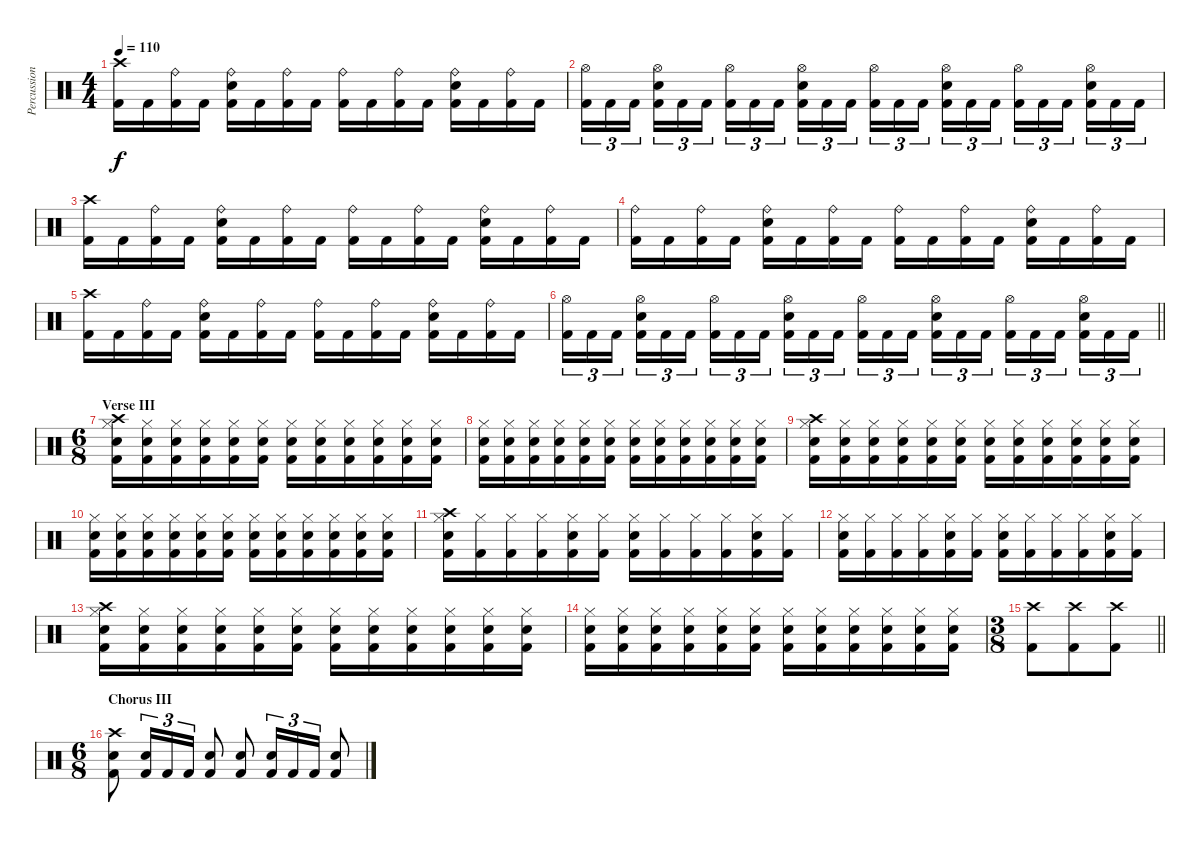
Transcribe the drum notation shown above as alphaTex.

\track ("Percussion" "Percussion") {instrument percussion}
\staff {score}
\articulation defaults
\ts (4 4)
\tempo 110
\clef neutral
\ks c
("Crash high (hit)" "Kick (hit) 2").16{dy f} "Kick (hit) 2".16 ("Ride (bell)" "Kick (hit) 2").16 "Kick (hit) 2".16 ("Ride (bell)" "Electric Snare (hit)" "Kick (hit) 2").16 "Kick (hit) 2".16 ("Ride (bell)" "Kick (hit) 2").16 "Kick (hit) 2".16 ("Ride (bell)" "Kick (hit) 2").16 "Kick (hit) 2".16 ("Ride (bell)" "Kick (hit) 2").16 "Kick (hit) 2".16 ("Ride (bell)" "Electric Snare (hit)" "Kick (hit) 2").16 "Kick (hit) 2".16 ("Ride (bell)" "Kick (hit) 2").16 "Kick (hit) 2".16 |
("Hi-Hat (open)" "Kick (hit) 2").16{tu (3 2)} "Kick (hit) 2".16{tu (3 2)} "Kick (hit) 2".16{tu (3 2) beam splitsecondary} ("Hi-Hat (open)" "Electric Snare (hit)" "Kick (hit) 2").16{tu (3 2)} "Kick (hit) 2".16{tu (3 2)} "Kick (hit) 2".16{tu (3 2)} ("Hi-Hat (open)" "Kick (hit) 2").16{tu (3 2)} "Kick (hit) 2".16{tu (3 2)} "Kick (hit) 2".16{tu (3 2) beam splitsecondary} ("Hi-Hat (open)" "Electric Snare (hit)" "Kick (hit) 2").16{tu (3 2)} "Kick (hit) 2".16{tu (3 2)} "Kick (hit) 2".16{tu (3 2)} ("Hi-Hat (open)" "Kick (hit) 2").16{tu (3 2)} "Kick (hit) 2".16{tu (3 2)} "Kick (hit) 2".16{tu (3 2) beam splitsecondary} ("Hi-Hat (open)" "Electric Snare (hit)" "Kick (hit) 2").16{tu (3 2)} "Kick (hit) 2".16{tu (3 2)} "Kick (hit) 2".16{tu (3 2)} ("Hi-Hat (open)" "Kick (hit) 2").16{tu (3 2)} "Kick (hit) 2".16{tu (3 2)} "Kick (hit) 2".16{tu (3 2) beam splitsecondary} ("Hi-Hat (open)" "Electric Snare (hit)" "Kick (hit) 2").16{tu (3 2)} "Kick (hit) 2".16{tu (3 2)} "Kick (hit) 2".16{tu (3 2)} |
("Crash high (hit)" "Kick (hit) 2").16 "Kick (hit) 2".16 ("Ride (bell)" "Kick (hit) 2").16 "Kick (hit) 2".16 ("Ride (bell)" "Electric Snare (hit)" "Kick (hit) 2").16 "Kick (hit) 2".16 ("Ride (bell)" "Kick (hit) 2").16 "Kick (hit) 2".16 ("Ride (bell)" "Kick (hit) 2").16 "Kick (hit) 2".16 ("Ride (bell)" "Kick (hit) 2").16 "Kick (hit) 2".16 ("Ride (bell)" "Electric Snare (hit)" "Kick (hit) 2").16 "Kick (hit) 2".16 ("Ride (bell)" "Kick (hit) 2").16 "Kick (hit) 2".16 |
("Ride (bell)" "Kick (hit) 2").16 "Kick (hit) 2".16 ("Ride (bell)" "Kick (hit) 2").16 "Kick (hit) 2".16 ("Ride (bell)" "Electric Snare (hit)" "Kick (hit) 2").16 "Kick (hit) 2".16 ("Ride (bell)" "Kick (hit) 2").16 "Kick (hit) 2".16 ("Ride (bell)" "Kick (hit) 2").16 "Kick (hit) 2".16 ("Ride (bell)" "Kick (hit) 2").16 "Kick (hit) 2".16 ("Ride (bell)" "Electric Snare (hit)" "Kick (hit) 2").16 "Kick (hit) 2".16 ("Ride (bell)" "Kick (hit) 2").16 "Kick (hit) 2".16 |
("Crash high (hit)" "Kick (hit) 2").16 "Kick (hit) 2".16 ("Ride (bell)" "Kick (hit) 2").16 "Kick (hit) 2".16 ("Ride (bell)" "Electric Snare (hit)" "Kick (hit) 2").16 "Kick (hit) 2".16 ("Ride (bell)" "Kick (hit) 2").16 "Kick (hit) 2".16 ("Ride (bell)" "Kick (hit) 2").16 "Kick (hit) 2".16 ("Ride (bell)" "Kick (hit) 2").16 "Kick (hit) 2".16 ("Ride (bell)" "Electric Snare (hit)" "Kick (hit) 2").16 "Kick (hit) 2".16 ("Ride (bell)" "Kick (hit) 2").16 "Kick (hit) 2".16 |
\barLineRight lightlight
("Hi-Hat (open)" "Kick (hit) 2").16{tu (3 2)} "Kick (hit) 2".16{tu (3 2)} "Kick (hit) 2".16{tu (3 2) beam splitsecondary} ("Hi-Hat (open)" "Electric Snare (hit)" "Kick (hit) 2").16{tu (3 2)} "Kick (hit) 2".16{tu (3 2)} "Kick (hit) 2".16{tu (3 2)} ("Hi-Hat (open)" "Kick (hit) 2").16{tu (3 2)} "Kick (hit) 2".16{tu (3 2)} "Kick (hit) 2".16{tu (3 2) beam splitsecondary} ("Hi-Hat (open)" "Electric Snare (hit)" "Kick (hit) 2").16{tu (3 2)} "Kick (hit) 2".16{tu (3 2)} "Kick (hit) 2".16{tu (3 2)} ("Hi-Hat (open)" "Kick (hit) 2").16{tu (3 2)} "Kick (hit) 2".16{tu (3 2)} "Kick (hit) 2".16{tu (3 2) beam splitsecondary} ("Hi-Hat (open)" "Electric Snare (hit)" "Kick (hit) 2").16{tu (3 2)} "Kick (hit) 2".16{tu (3 2)} "Kick (hit) 2".16{tu (3 2)} ("Hi-Hat (open)" "Kick (hit) 2").16{tu (3 2)} "Kick (hit) 2".16{tu (3 2)} "Kick (hit) 2".16{tu (3 2) beam splitsecondary} ("Hi-Hat (open)" "Electric Snare (hit)" "Kick (hit) 2").16{tu (3 2)} "Kick (hit) 2".16{tu (3 2)} "Kick (hit) 2".16{tu (3 2)} |
\ts (6 8)
\section ("" "Verse III")
("Crash high (hit)" "Hi-Hat (closed)" "Electric Snare (hit)" "Kick (hit) 2").16 ("Hi-Hat (closed)" "Electric Snare (hit)" "Kick (hit) 2").16 ("Hi-Hat (closed)" "Electric Snare (hit)" "Kick (hit) 2").16 ("Hi-Hat (closed)" "Electric Snare (hit)" "Kick (hit) 2").16 ("Hi-Hat (closed)" "Electric Snare (hit)" "Kick (hit) 2").16 ("Hi-Hat (closed)" "Electric Snare (hit)" "Kick (hit) 2").16 ("Hi-Hat (closed)" "Electric Snare (hit)" "Kick (hit) 2").16 ("Hi-Hat (closed)" "Electric Snare (hit)" "Kick (hit) 2").16 ("Hi-Hat (closed)" "Electric Snare (hit)" "Kick (hit) 2").16 ("Hi-Hat (closed)" "Electric Snare (hit)" "Kick (hit) 2").16 ("Hi-Hat (closed)" "Electric Snare (hit)" "Kick (hit) 2").16 ("Hi-Hat (closed)" "Electric Snare (hit)" "Kick (hit) 2").16 |
("Hi-Hat (closed)" "Electric Snare (hit)" "Kick (hit) 2").16 ("Hi-Hat (closed)" "Electric Snare (hit)" "Kick (hit) 2").16 ("Hi-Hat (closed)" "Electric Snare (hit)" "Kick (hit) 2").16 ("Hi-Hat (closed)" "Electric Snare (hit)" "Kick (hit) 2").16 ("Hi-Hat (closed)" "Electric Snare (hit)" "Kick (hit) 2").16 ("Hi-Hat (closed)" "Electric Snare (hit)" "Kick (hit) 2").16 ("Hi-Hat (closed)" "Electric Snare (hit)" "Kick (hit) 2").16 ("Hi-Hat (closed)" "Electric Snare (hit)" "Kick (hit) 2").16 ("Hi-Hat (closed)" "Electric Snare (hit)" "Kick (hit) 2").16 ("Hi-Hat (closed)" "Electric Snare (hit)" "Kick (hit) 2").16 ("Hi-Hat (closed)" "Electric Snare (hit)" "Kick (hit) 2").16 ("Hi-Hat (closed)" "Electric Snare (hit)" "Kick (hit) 2").16 |
("Crash high (hit)" "Hi-Hat (closed)" "Electric Snare (hit)" "Kick (hit) 2").16 ("Hi-Hat (closed)" "Electric Snare (hit)" "Kick (hit) 2").16 ("Hi-Hat (closed)" "Electric Snare (hit)" "Kick (hit) 2").16 ("Hi-Hat (closed)" "Electric Snare (hit)" "Kick (hit) 2").16 ("Hi-Hat (closed)" "Electric Snare (hit)" "Kick (hit) 2").16 ("Hi-Hat (closed)" "Electric Snare (hit)" "Kick (hit) 2").16 ("Hi-Hat (closed)" "Electric Snare (hit)" "Kick (hit) 2").16 ("Hi-Hat (closed)" "Electric Snare (hit)" "Kick (hit) 2").16 ("Hi-Hat (closed)" "Electric Snare (hit)" "Kick (hit) 2").16 ("Hi-Hat (closed)" "Electric Snare (hit)" "Kick (hit) 2").16 ("Hi-Hat (closed)" "Electric Snare (hit)" "Kick (hit) 2").16 ("Hi-Hat (closed)" "Electric Snare (hit)" "Kick (hit) 2").16 |
("Hi-Hat (closed)" "Electric Snare (hit)" "Kick (hit) 2").16 ("Hi-Hat (closed)" "Electric Snare (hit)" "Kick (hit) 2").16 ("Hi-Hat (closed)" "Electric Snare (hit)" "Kick (hit) 2").16 ("Hi-Hat (closed)" "Electric Snare (hit)" "Kick (hit) 2").16 ("Hi-Hat (closed)" "Electric Snare (hit)" "Kick (hit) 2").16 ("Hi-Hat (closed)" "Electric Snare (hit)" "Kick (hit) 2").16 ("Hi-Hat (closed)" "Electric Snare (hit)" "Kick (hit) 2").16 ("Hi-Hat (closed)" "Electric Snare (hit)" "Kick (hit) 2").16 ("Hi-Hat (closed)" "Electric Snare (hit)" "Kick (hit) 2").16 ("Hi-Hat (closed)" "Electric Snare (hit)" "Kick (hit) 2").16 ("Hi-Hat (closed)" "Electric Snare (hit)" "Kick (hit) 2").16 ("Hi-Hat (closed)" "Electric Snare (hit)" "Kick (hit) 2").16 |
("Crash high (hit)" "Hi-Hat (closed)" "Electric Snare (hit)" "Kick (hit) 2").16 ("Hi-Hat (closed)" "Kick (hit) 2").16 ("Hi-Hat (closed)" "Kick (hit) 2").16 ("Hi-Hat (closed)" "Kick (hit) 2").16 ("Hi-Hat (closed)" "Electric Snare (hit)" "Kick (hit) 2").16 ("Hi-Hat (closed)" "Kick (hit) 2").16 ("Hi-Hat (closed)" "Electric Snare (hit)" "Kick (hit) 2").16 ("Hi-Hat (closed)" "Kick (hit) 2").16 ("Hi-Hat (closed)" "Kick (hit) 2").16 ("Hi-Hat (closed)" "Kick (hit) 2").16 ("Hi-Hat (closed)" "Electric Snare (hit)" "Kick (hit) 2").16 ("Hi-Hat (closed)" "Kick (hit) 2").16 |
("Hi-Hat (closed)" "Electric Snare (hit)" "Kick (hit) 2").16 ("Hi-Hat (closed)" "Kick (hit) 2").16 ("Hi-Hat (closed)" "Kick (hit) 2").16 ("Hi-Hat (closed)" "Kick (hit) 2").16 ("Hi-Hat (closed)" "Electric Snare (hit)" "Kick (hit) 2").16 ("Hi-Hat (closed)" "Kick (hit) 2").16 ("Hi-Hat (closed)" "Electric Snare (hit)" "Kick (hit) 2").16 ("Hi-Hat (closed)" "Kick (hit) 2").16 ("Hi-Hat (closed)" "Kick (hit) 2").16 ("Hi-Hat (closed)" "Kick (hit) 2").16 ("Hi-Hat (closed)" "Electric Snare (hit)" "Kick (hit) 2").16 ("Hi-Hat (closed)" "Kick (hit) 2").16 |
("Crash high (hit)" "Hi-Hat (closed)" "Electric Snare (hit)" "Kick (hit) 2").16 ("Hi-Hat (closed)" "Electric Snare (hit)" "Kick (hit) 2").16 ("Hi-Hat (closed)" "Electric Snare (hit)" "Kick (hit) 2").16 ("Hi-Hat (closed)" "Electric Snare (hit)" "Kick (hit) 2").16 ("Hi-Hat (closed)" "Electric Snare (hit)" "Kick (hit) 2").16 ("Hi-Hat (closed)" "Electric Snare (hit)" "Kick (hit) 2").16 ("Hi-Hat (closed)" "Electric Snare (hit)" "Kick (hit) 2").16 ("Hi-Hat (closed)" "Electric Snare (hit)" "Kick (hit) 2").16 ("Hi-Hat (closed)" "Electric Snare (hit)" "Kick (hit) 2").16 ("Hi-Hat (closed)" "Electric Snare (hit)" "Kick (hit) 2").16 ("Hi-Hat (closed)" "Electric Snare (hit)" "Kick (hit) 2").16 ("Hi-Hat (closed)" "Electric Snare (hit)" "Kick (hit) 2").16 |
("Hi-Hat (closed)" "Electric Snare (hit)" "Kick (hit) 2").16 ("Hi-Hat (closed)" "Electric Snare (hit)" "Kick (hit) 2").16 ("Hi-Hat (closed)" "Electric Snare (hit)" "Kick (hit) 2").16 ("Hi-Hat (closed)" "Electric Snare (hit)" "Kick (hit) 2").16 ("Hi-Hat (closed)" "Electric Snare (hit)" "Kick (hit) 2").16 ("Hi-Hat (closed)" "Electric Snare (hit)" "Kick (hit) 2").16 ("Hi-Hat (closed)" "Electric Snare (hit)" "Kick (hit) 2").16 ("Hi-Hat (closed)" "Electric Snare (hit)" "Kick (hit) 2").16 ("Hi-Hat (closed)" "Electric Snare (hit)" "Kick (hit) 2").16 ("Hi-Hat (closed)" "Electric Snare (hit)" "Kick (hit) 2").16 ("Hi-Hat (closed)" "Electric Snare (hit)" "Kick (hit) 2").16 ("Hi-Hat (closed)" "Electric Snare (hit)" "Kick (hit) 2").16 |
\ts (3 8)
\barLineRight lightlight
("Crash high (hit)" "Kick (hit) 2").8 ("Crash high (hit)" "Kick (hit) 2").8 ("Crash high (hit)" "Kick (hit) 2").8 |
\ts (6 8)
\section ("" "Chorus III")
("Crash high (hit)" "Electric Snare (hit)" "Kick (hit) 2").8 ("Electric Snare (hit)" "Kick (hit) 2").16{tu (3 2)} "Kick (hit) 2".16{tu (3 2)} "Kick (hit) 2".16{tu (3 2)} ("Electric Snare (hit)" "Kick (hit) 2").8 ("Electric Snare (hit)" "Kick (hit) 2").8 ("Electric Snare (hit)" "Kick (hit) 2").16{tu (3 2)} "Kick (hit) 2".16{tu (3 2)} "Kick (hit) 2".16{tu (3 2)} ("Electric Snare (hit)" "Kick (hit) 2").8
